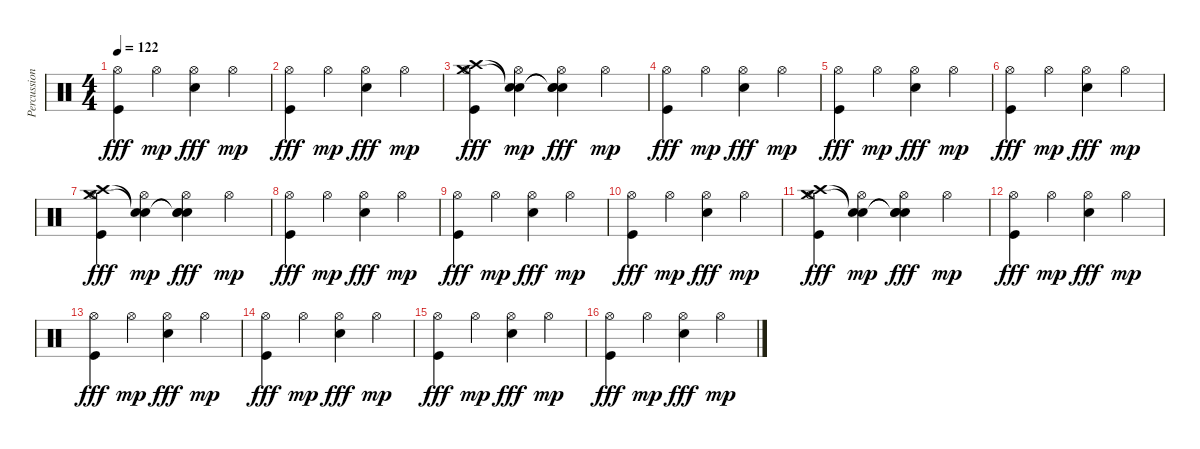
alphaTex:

\track ("Percussion" "Percussion") {instrument percussion}
\staff {score}
\articulation defaults
\ts (4 4)
\tempo 122
\clef neutral
\ks c
("Hi-Hat (open)" "Kick (hit)").4{dy fff} "Hi-Hat (open)".4{dy mp} ("Hi-Hat (open)" "Snare (hit) 2").4{dy fff} "Hi-Hat (open)".4{dy mp} |
("Hi-Hat (open)" "Kick (hit)").4{dy fff} "Hi-Hat (open)".4{dy mp} ("Hi-Hat (open)" "Snare (hit) 2").4{dy fff} "Hi-Hat (open)".4{dy mp} |
("Hi-Hat (open)" "Crash high (hit)" "Crash medium (hit)" "Kick (hit)").4{dy fff} ("Hi-Hat (open)" "Snare (hit)"{t} "Snare (hit)"{t}).4{dy mp} ("Hi-Hat (open)" "Snare (hit)"{t} "Snare (hit)"{t} "Snare (hit) 2").4{dy fff} "Hi-Hat (open)".4{dy mp} |
("Hi-Hat (open)" "Kick (hit)").4{dy fff} "Hi-Hat (open)".4{dy mp} ("Hi-Hat (open)" "Snare (hit) 2").4{dy fff} "Hi-Hat (open)".4{dy mp} |
("Hi-Hat (open)" "Kick (hit)").4{dy fff} "Hi-Hat (open)".4{dy mp} ("Hi-Hat (open)" "Snare (hit) 2").4{dy fff} "Hi-Hat (open)".4{dy mp} |
("Hi-Hat (open)" "Kick (hit)").4{dy fff} "Hi-Hat (open)".4{dy mp} ("Hi-Hat (open)" "Snare (hit) 2").4{dy fff} "Hi-Hat (open)".4{dy mp} |
("Hi-Hat (open)" "Crash high (hit)" "Crash medium (hit)" "Kick (hit)").4{dy fff} ("Hi-Hat (open)" "Snare (hit)"{t} "Snare (hit)"{t}).4{dy mp} ("Hi-Hat (open)" "Snare (hit)"{t} "Snare (hit)"{t} "Snare (hit) 2").4{dy fff} "Hi-Hat (open)".4{dy mp} |
("Hi-Hat (open)" "Kick (hit)").4{dy fff} "Hi-Hat (open)".4{dy mp} ("Hi-Hat (open)" "Snare (hit) 2").4{dy fff} "Hi-Hat (open)".4{dy mp} |
("Hi-Hat (open)" "Kick (hit)").4{dy fff} "Hi-Hat (open)".4{dy mp} ("Hi-Hat (open)" "Snare (hit) 2").4{dy fff} "Hi-Hat (open)".4{dy mp} |
("Hi-Hat (open)" "Kick (hit)").4{dy fff} "Hi-Hat (open)".4{dy mp} ("Hi-Hat (open)" "Snare (hit) 2").4{dy fff} "Hi-Hat (open)".4{dy mp} |
("Hi-Hat (open)" "Crash high (hit)" "Crash medium (hit)" "Kick (hit)").4{dy fff} ("Hi-Hat (open)" "Snare (hit)"{t} "Snare (hit)"{t}).4{dy mp} ("Hi-Hat (open)" "Snare (hit)"{t} "Snare (hit)"{t} "Snare (hit) 2").4{dy fff} "Hi-Hat (open)".4{dy mp} |
("Hi-Hat (open)" "Kick (hit)").4{dy fff} "Hi-Hat (open)".4{dy mp} ("Hi-Hat (open)" "Snare (hit) 2").4{dy fff} "Hi-Hat (open)".4{dy mp} |
("Hi-Hat (open)" "Kick (hit)").4{dy fff} "Hi-Hat (open)".4{dy mp} ("Hi-Hat (open)" "Snare (hit) 2").4{dy fff} "Hi-Hat (open)".4{dy mp} |
("Hi-Hat (open)" "Kick (hit)").4{dy fff} "Hi-Hat (open)".4{dy mp} ("Hi-Hat (open)" "Snare (hit) 2").4{dy fff} "Hi-Hat (open)".4{dy mp} |
("Hi-Hat (open)" "Kick (hit)").4{dy fff} "Hi-Hat (open)".4{dy mp} ("Hi-Hat (open)" "Snare (hit) 2").4{dy fff} "Hi-Hat (open)".4{dy mp} |
("Hi-Hat (open)" "Kick (hit)").4{dy fff} "Hi-Hat (open)".4{dy mp} ("Hi-Hat (open)" "Snare (hit) 2").4{dy fff} "Hi-Hat (open)".4{dy mp}
